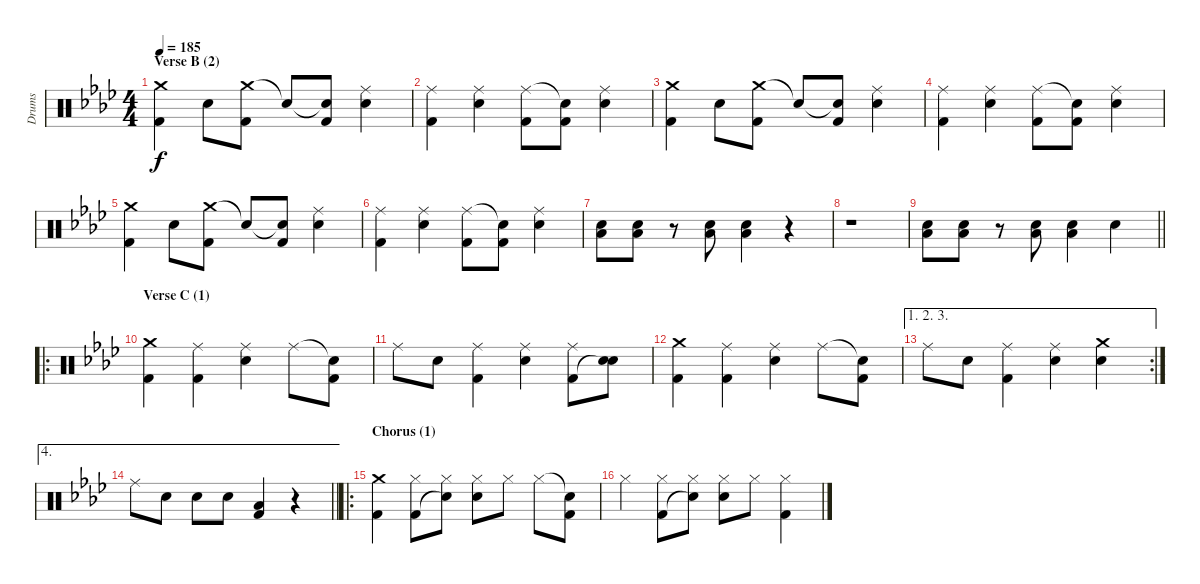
\track ("Drums" "Drums") {instrument percussion}
\staff {score}
\articulation defaults
\ts (4 4)
\section ("" "Verse B (2)")
\tempo 185
\clef neutral
\ks fminor
("Crash medium (hit)" "Kick (hit) 2").4{dy f} "Electric Snare (hit)".8 ("Crash medium (hit)" "Kick (hit) 2").8 "Snare (hit)"{t}.8 ("Snare (hit)"{t} "Kick (hit) 2").8 ("Ride (middle)" "Electric Snare (hit)").4 |
("Ride (middle)" "Kick (hit) 2").4 ("Ride (middle)" "Electric Snare (hit)").4 ("Ride (middle)" "Kick (hit) 2").8 ("Snare (hit)"{t} "Kick (hit) 2").8 ("Ride (middle)" "Electric Snare (hit)").4 |
("Crash medium (hit)" "Kick (hit) 2").4 "Electric Snare (hit)".8 ("Crash medium (hit)" "Kick (hit) 2").8 "Snare (hit)"{t}.8 ("Snare (hit)"{t} "Kick (hit) 2").8 ("Ride (middle)" "Electric Snare (hit)").4 |
("Ride (middle)" "Kick (hit) 2").4 ("Ride (middle)" "Electric Snare (hit)").4 ("Ride (middle)" "Kick (hit) 2").8 ("Snare (hit)"{t} "Kick (hit) 2").8 ("Ride (middle)" "Electric Snare (hit)").4 |
("Crash medium (hit)" "Kick (hit) 2").4 "Electric Snare (hit)".8 ("Crash medium (hit)" "Kick (hit) 2").8 "Snare (hit)"{t}.8 ("Snare (hit)"{t} "Kick (hit) 2").8 ("Ride (middle)" "Electric Snare (hit)").4 |
("Ride (middle)" "Kick (hit) 2").4 ("Ride (middle)" "Electric Snare (hit)").4 ("Ride (middle)" "Kick (hit) 2").8 ("Snare (hit)"{t} "Kick (hit) 2").8 ("Ride (middle)" "Electric Snare (hit)").4 |
("Electric Snare (hit)" "Low Floor Tom (hit)").8 ("Electric Snare (hit)" "Low Floor Tom (hit)").8 r.8 ("Electric Snare (hit)" "Low Floor Tom (hit)").8 ("Electric Snare (hit)" "Low Floor Tom (hit)").4 r.4 |
r.1 |
\barLineRight lightlight
("Electric Snare (hit)" "Low Floor Tom (hit)").8 ("Electric Snare (hit)" "Low Floor Tom (hit)").8 r.8 ("Electric Snare (hit)" "Low Floor Tom (hit)").8 ("Electric Snare (hit)" "Low Floor Tom (hit)").4 "Electric Snare (hit)".4 |
\ro
\section ("" "Verse C (1)")
("Crash medium (hit)" "Kick (hit) 2").4 ("Ride (middle)" "Kick (hit) 2").4 ("Ride (middle)" "Electric Snare (hit)").4 "Ride (middle)".8 ("Snare (hit)"{t} "Kick (hit) 2").8 |
"Ride (middle)".8 "Electric Snare (hit)".8 ("Ride (middle)" "Kick (hit) 2").4 ("Ride (middle)" "Electric Snare (hit)").4 ("Ride (middle)" "Kick (hit) 2").8 ("Electric Snare (hit)" "Snare (hit)"{t}).8 |
("Crash medium (hit)" "Kick (hit) 2").4 ("Ride (middle)" "Kick (hit) 2").4 ("Ride (middle)" "Electric Snare (hit)").4 "Ride (middle)".8 ("Snare (hit)"{t} "Kick (hit) 2").8 |
\ae (1 2 3)
\rc 2 "Ride (middle)".8 "Electric Snare (hit)".8
("Ride (middle)" "Kick (hit) 2").4 ("Ride (middle)" "Electric Snare (hit)").4 ("Crash medium (hit)" "Electric Snare (hit)").4 |
\ae 4
\barLineRight lightlight "Ride (middle)".8 "Electric Snare (hit)".8 "Electric Snare (hit)".8 "Electric Snare (hit)".8
("Low Floor Tom (hit)" "Kick (hit) 2").4 r.4 |
\ro
\section ("" "Chorus (1)")
("Crash medium (hit)" "Kick (hit) 2").4 ("Hi-Hat (closed)" "Kick (hit) 2").8 ("Hi-Hat (closed)" "Snare (hit)"{t}).8 ("Hi-Hat (closed)" "Electric Snare (hit)").8 "Hi-Hat (closed)".8 "Hi-Hat (closed)".8 ("Snare (hit)"{t} "Kick (hit) 2").8 |
"Hi-Hat (closed)".4 ("Hi-Hat (closed)" "Kick (hit) 2").8 ("Hi-Hat (closed)" "Snare (hit)"{t}).8 ("Hi-Hat (closed)" "Electric Snare (hit)").8 "Hi-Hat (closed)".8 ("Hi-Hat (closed)" "Kick (hit) 2").4
